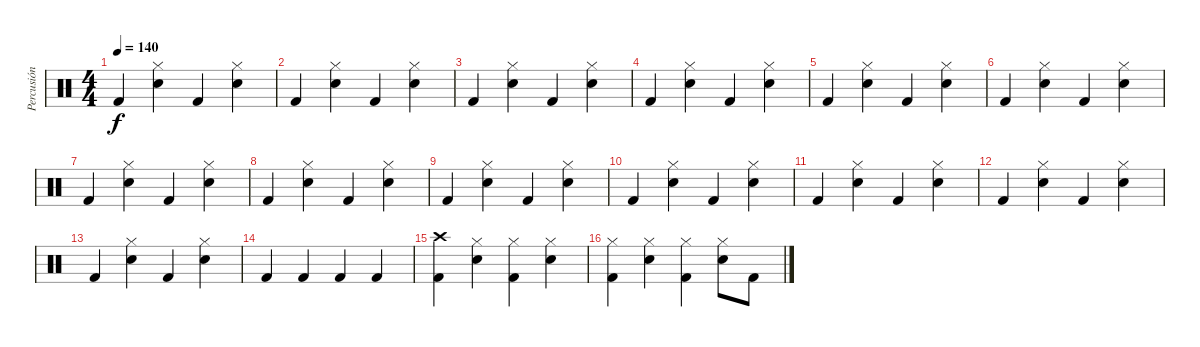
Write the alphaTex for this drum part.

\track ("Percusión" "Percusión") {instrument percussion}
\staff {score}
\articulation defaults
\ts (4 4)
\tempo 140
\clef neutral
\ks c "Kick (hit) 2".4{dy f}
("Hi-Hat (closed)" "Snare (hit) 2").4 "Kick (hit) 2".4 ("Hi-Hat (closed)" "Snare (hit) 2").4 |
"Kick (hit) 2".4 ("Hi-Hat (closed)" "Snare (hit) 2").4 "Kick (hit) 2".4 ("Hi-Hat (closed)" "Snare (hit) 2").4 |
"Kick (hit) 2".4 ("Hi-Hat (closed)" "Snare (hit) 2").4 "Kick (hit) 2".4 ("Hi-Hat (closed)" "Snare (hit) 2").4 |
"Kick (hit) 2".4 ("Hi-Hat (closed)" "Snare (hit) 2").4 "Kick (hit) 2".4 ("Hi-Hat (closed)" "Snare (hit) 2").4 |
"Kick (hit) 2".4 ("Hi-Hat (closed)" "Snare (hit) 2").4 "Kick (hit) 2".4 ("Hi-Hat (closed)" "Snare (hit) 2").4 |
"Kick (hit) 2".4 ("Hi-Hat (closed)" "Snare (hit) 2").4 "Kick (hit) 2".4 ("Hi-Hat (closed)" "Snare (hit) 2").4 |
"Kick (hit) 2".4 ("Hi-Hat (closed)" "Snare (hit) 2").4 "Kick (hit) 2".4 ("Hi-Hat (closed)" "Snare (hit) 2").4 |
"Kick (hit) 2".4 ("Hi-Hat (closed)" "Snare (hit) 2").4 "Kick (hit) 2".4 ("Hi-Hat (closed)" "Snare (hit) 2").4 |
"Kick (hit) 2".4 ("Hi-Hat (closed)" "Snare (hit) 2").4 "Kick (hit) 2".4 ("Hi-Hat (closed)" "Snare (hit) 2").4 |
"Kick (hit) 2".4 ("Hi-Hat (closed)" "Snare (hit) 2").4 "Kick (hit) 2".4 ("Hi-Hat (closed)" "Snare (hit) 2").4 |
"Kick (hit) 2".4 ("Hi-Hat (closed)" "Snare (hit) 2").4 "Kick (hit) 2".4 ("Hi-Hat (closed)" "Snare (hit) 2").4 |
"Kick (hit) 2".4 ("Hi-Hat (closed)" "Snare (hit) 2").4 "Kick (hit) 2".4 ("Hi-Hat (closed)" "Snare (hit) 2").4 |
"Kick (hit) 2".4 ("Hi-Hat (closed)" "Snare (hit) 2").4 "Kick (hit) 2".4 ("Hi-Hat (closed)" "Snare (hit) 2").4 |
"Kick (hit) 2".4 "Kick (hit) 2".4 "Kick (hit) 2".4 "Kick (hit) 2".4 |
("Crash high (hit)" "Kick (hit) 2").4 ("Hi-Hat (closed)" "Snare (hit) 2").4 ("Hi-Hat (closed)" "Kick (hit) 2").4 ("Hi-Hat (closed)" "Snare (hit) 2").4 |
("Hi-Hat (closed)" "Kick (hit) 2").4 ("Hi-Hat (closed)" "Snare (hit) 2").4 ("Hi-Hat (closed)" "Kick (hit) 2").4 ("Hi-Hat (closed)" "Snare (hit) 2").8 "Kick (hit) 2".8
